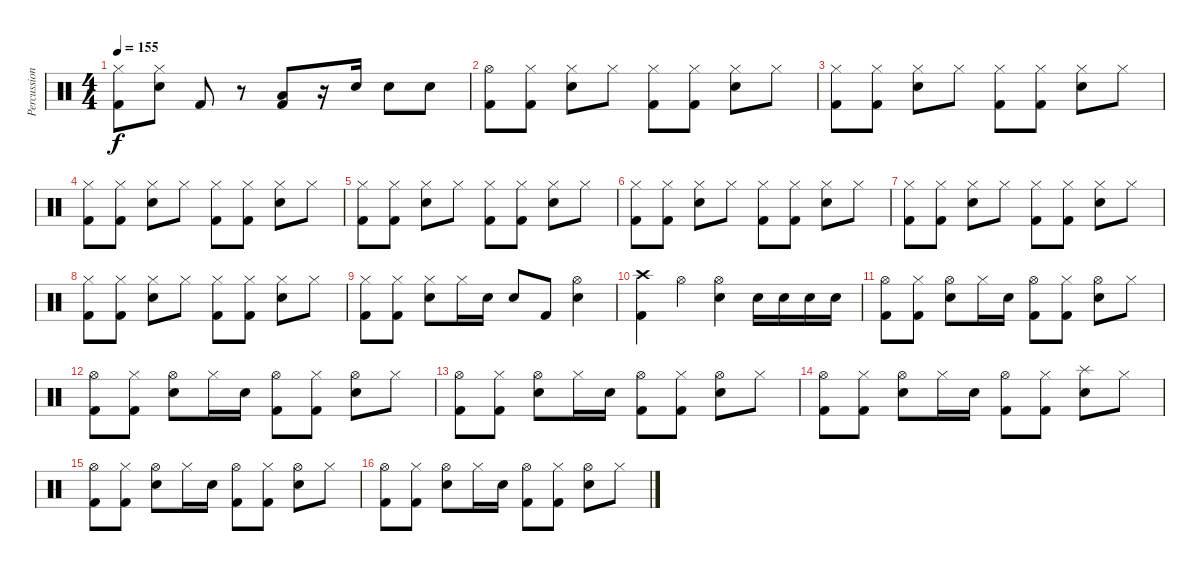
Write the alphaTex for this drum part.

\track ("Percussion" "Percussion") {instrument percussion}
\staff {score}
\articulation defaults
\ts (4 4)
\tempo 155
\clef neutral
\ks c
("Hi-Hat (closed)" "Kick (hit) 2").8{dy f} ("Hi-Hat (closed)" "Snare (hit) 2").8 "Kick (hit) 2".8 r.8 ("Low Floor Tom (hit)" "Kick (hit) 2").8 r.16 "Snare (hit) 2".16 "Snare (hit) 2".8 "Snare (hit) 2".8 |
("Hi-Hat (open)" "Kick (hit) 2").8 ("Hi-Hat (closed)" "Kick (hit) 2").8 ("Hi-Hat (closed)" "Snare (hit) 2").8 "Hi-Hat (closed)".8 ("Hi-Hat (closed)" "Kick (hit) 2").8 ("Hi-Hat (closed)" "Kick (hit) 2").8 ("Hi-Hat (closed)" "Snare (hit) 2").8 "Hi-Hat (closed)".8 |
("Hi-Hat (closed)" "Kick (hit) 2").8 ("Hi-Hat (closed)" "Kick (hit) 2").8 ("Hi-Hat (closed)" "Snare (hit) 2").8 "Hi-Hat (closed)".8 ("Hi-Hat (closed)" "Kick (hit) 2").8 ("Hi-Hat (closed)" "Kick (hit) 2").8 ("Hi-Hat (closed)" "Snare (hit) 2").8 "Hi-Hat (closed)".8 |
("Hi-Hat (closed)" "Kick (hit) 2").8 ("Hi-Hat (closed)" "Kick (hit) 2").8 ("Hi-Hat (closed)" "Snare (hit) 2").8 "Hi-Hat (closed)".8 ("Hi-Hat (closed)" "Kick (hit) 2").8 ("Hi-Hat (closed)" "Kick (hit) 2").8 ("Hi-Hat (closed)" "Snare (hit) 2").8 "Hi-Hat (closed)".8 |
("Hi-Hat (closed)" "Kick (hit) 2").8 ("Hi-Hat (closed)" "Kick (hit) 2").8 ("Hi-Hat (closed)" "Snare (hit) 2").8 "Hi-Hat (closed)".8 ("Hi-Hat (closed)" "Kick (hit) 2").8 ("Hi-Hat (closed)" "Kick (hit) 2").8 ("Hi-Hat (closed)" "Snare (hit) 2").8 "Hi-Hat (closed)".8 |
("Hi-Hat (closed)" "Kick (hit) 2").8 ("Hi-Hat (closed)" "Kick (hit) 2").8 ("Hi-Hat (closed)" "Snare (hit) 2").8 "Hi-Hat (closed)".8 ("Hi-Hat (closed)" "Kick (hit) 2").8 ("Hi-Hat (closed)" "Kick (hit) 2").8 ("Hi-Hat (closed)" "Snare (hit) 2").8 "Hi-Hat (closed)".8 |
("Hi-Hat (closed)" "Kick (hit) 2").8 ("Hi-Hat (closed)" "Kick (hit) 2").8 ("Hi-Hat (closed)" "Snare (hit) 2").8 "Hi-Hat (closed)".8 ("Hi-Hat (closed)" "Kick (hit) 2").8 ("Hi-Hat (closed)" "Kick (hit) 2").8 ("Hi-Hat (closed)" "Snare (hit) 2").8 "Hi-Hat (closed)".8 |
("Hi-Hat (closed)" "Kick (hit) 2").8 ("Hi-Hat (closed)" "Kick (hit) 2").8 ("Hi-Hat (closed)" "Snare (hit) 2").8 "Hi-Hat (closed)".8 ("Hi-Hat (closed)" "Kick (hit) 2").8 ("Hi-Hat (closed)" "Kick (hit) 2").8 ("Hi-Hat (closed)" "Snare (hit) 2").8 "Hi-Hat (closed)".8 |
("Hi-Hat (closed)" "Kick (hit) 2").8 ("Hi-Hat (closed)" "Kick (hit) 2").8 ("Hi-Hat (closed)" "Snare (hit) 2").8 "Hi-Hat (closed)".16 "Snare (hit) 2".16 "Snare (hit) 2".8 "Kick (hit) 2".8 ("Hi-Hat (open)" "Snare (hit) 2").4 |
("Crash high (hit)" "Kick (hit) 2").4 "Hi-Hat (open)".4 ("Hi-Hat (open)" "Snare (hit) 2").4 "Snare (hit) 2".16 "Snare (hit) 2".16 "Snare (hit) 2".16 "Snare (hit) 2".16 |
("Hi-Hat (open)" "Kick (hit) 2").8 ("Hi-Hat (closed)" "Kick (hit) 2").8 ("Hi-Hat (open)" "Snare (hit) 2").8 "Hi-Hat (closed)".16 "Snare (hit) 2".16 ("Hi-Hat (open)" "Kick (hit) 2").8 ("Hi-Hat (closed)" "Kick (hit) 2").8 ("Hi-Hat (open)" "Snare (hit) 2").8 "Hi-Hat (closed)".8 |
("Hi-Hat (open)" "Kick (hit) 2").8 ("Hi-Hat (closed)" "Kick (hit) 2").8 ("Hi-Hat (open)" "Snare (hit) 2").8 "Hi-Hat (closed)".16 "Snare (hit) 2".16 ("Hi-Hat (open)" "Kick (hit) 2").8 ("Hi-Hat (closed)" "Kick (hit) 2").8 ("Hi-Hat (open)" "Snare (hit) 2").8 "Hi-Hat (closed)".8 |
("Hi-Hat (open)" "Kick (hit) 2").8 ("Hi-Hat (closed)" "Kick (hit) 2").8 ("Hi-Hat (open)" "Snare (hit) 2").8 "Hi-Hat (closed)".16 "Snare (hit) 2".16 ("Hi-Hat (open)" "Kick (hit) 2").8 ("Hi-Hat (closed)" "Kick (hit) 2").8 ("Hi-Hat (open)" "Snare (hit) 2").8 "Hi-Hat (closed)".8 |
("Hi-Hat (open)" "Kick (hit) 2").8 ("Hi-Hat (closed)" "Kick (hit) 2").8 ("Hi-Hat (open)" "Snare (hit) 2").8 "Hi-Hat (closed)".16 "Snare (hit) 2".16 ("Hi-Hat (open)" "Kick (hit) 2").8 ("Hi-Hat (closed)" "Kick (hit) 2").8 ("Splash (hit)" "Snare (hit) 2").8 "Hi-Hat (closed)".8 |
("Hi-Hat (open)" "Kick (hit) 2").8 ("Hi-Hat (closed)" "Kick (hit) 2").8 ("Hi-Hat (open)" "Snare (hit) 2").8 "Hi-Hat (closed)".16 "Snare (hit) 2".16 ("Hi-Hat (open)" "Kick (hit) 2").8 ("Hi-Hat (closed)" "Kick (hit) 2").8 ("Hi-Hat (open)" "Snare (hit) 2").8 "Hi-Hat (closed)".8 |
("Hi-Hat (open)" "Kick (hit) 2").8 ("Hi-Hat (closed)" "Kick (hit) 2").8 ("Hi-Hat (open)" "Snare (hit) 2").8 "Hi-Hat (closed)".16 "Snare (hit) 2".16 ("Hi-Hat (open)" "Kick (hit) 2").8 ("Hi-Hat (closed)" "Kick (hit) 2").8 ("Hi-Hat (open)" "Snare (hit) 2").8 "Hi-Hat (closed)".8
